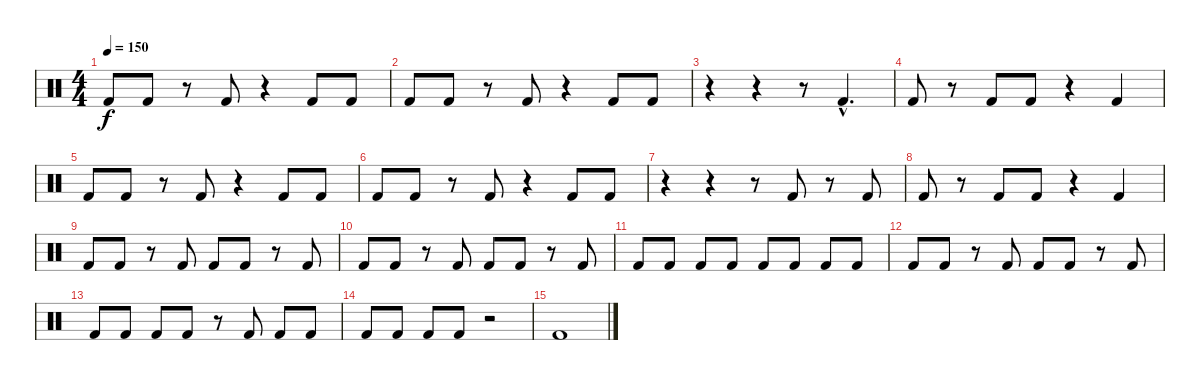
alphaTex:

\track "" {instrument percussion}
\staff {score}
\articulation defaults
\ts (4 4)
\tempo 150
\clef neutral
\ks c "Kick (hit) 2".8{dy f} "Kick (hit) 2".8
r.8 "Kick (hit) 2".8 r.4 "Kick (hit) 2".8 "Kick (hit) 2".8 |
"Kick (hit) 2".8 "Kick (hit) 2".8 r.8 "Kick (hit) 2".8 r.4 "Kick (hit) 2".8 "Kick (hit) 2".8 |
r.4 r.4 r.8 "Kick (hit) 2"{hac}.4{d} |
"Kick (hit) 2".8 r.8 "Kick (hit) 2".8 "Kick (hit) 2".8 r.4 "Kick (hit) 2".4 |
"Kick (hit) 2".8 "Kick (hit) 2".8 r.8 "Kick (hit) 2".8 r.4 "Kick (hit) 2".8 "Kick (hit) 2".8 |
"Kick (hit) 2".8 "Kick (hit) 2".8 r.8 "Kick (hit) 2".8 r.4 "Kick (hit) 2".8 "Kick (hit) 2".8 |
r.4 r.4 r.8 "Kick (hit) 2".8 r.8 "Kick (hit) 2".8 |
"Kick (hit) 2".8 r.8 "Kick (hit) 2".8 "Kick (hit) 2".8 r.4 "Kick (hit) 2".4 |
"Kick (hit) 2".8 "Kick (hit) 2".8 r.8 "Kick (hit) 2".8 "Kick (hit) 2".8 "Kick (hit) 2".8 r.8 "Kick (hit) 2".8 |
"Kick (hit) 2".8 "Kick (hit) 2".8 r.8 "Kick (hit) 2".8 "Kick (hit) 2".8 "Kick (hit) 2".8 r.8 "Kick (hit) 2".8 |
"Kick (hit) 2".8 "Kick (hit) 2".8 "Kick (hit) 2".8 "Kick (hit) 2".8 "Kick (hit) 2".8 "Kick (hit) 2".8 "Kick (hit) 2".8 "Kick (hit) 2".8 |
"Kick (hit) 2".8 "Kick (hit) 2".8 r.8 "Kick (hit) 2".8 "Kick (hit) 2".8 "Kick (hit) 2".8 r.8 "Kick (hit) 2".8 |
"Kick (hit) 2".8 "Kick (hit) 2".8 "Kick (hit) 2".8 "Kick (hit) 2".8 r.8 "Kick (hit) 2".8 "Kick (hit) 2".8 "Kick (hit) 2".8 |
"Kick (hit) 2".8 "Kick (hit) 2".8 "Kick (hit) 2".8 "Kick (hit) 2".8 r.2 |
"Kick (hit) 2".1
